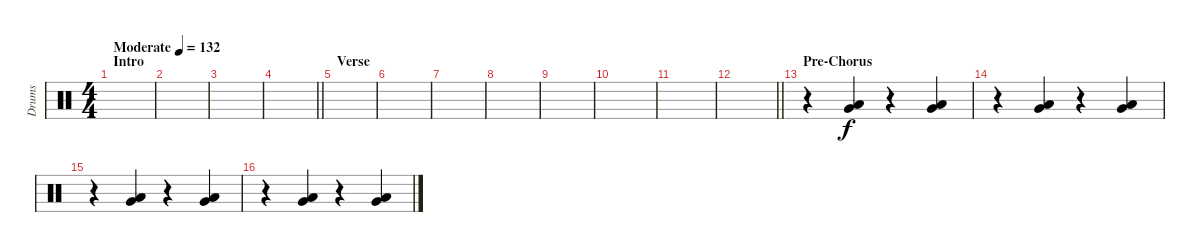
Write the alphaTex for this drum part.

\track ("Drums" "Drums") {instrument percussion}
\staff {score}
\articulation defaults
\ts (4 4)
\section ("" "Intro")
\tempo (132 "Moderate")
\clef neutral
\ks c
|
|
|
\barLineRight lightlight
|
\section ("" "Verse")
|
|
|
|
|
|
|
\barLineRight lightlight
|
\section ("" "Pre-Chorus")
r.4 ("Low Tom (hit)" "Very Low Tom (hit)").4 r.4 ("Low Tom (hit)" "Very Low Tom (hit)").4 |
r.4 ("Low Tom (hit)" "Very Low Tom (hit)").4 r.4 ("Low Tom (hit)" "Very Low Tom (hit)").4 |
r.4 ("Low Tom (hit)" "Very Low Tom (hit)").4 r.4 ("Low Tom (hit)" "Very Low Tom (hit)").4 |
r.4 ("Low Tom (hit)" "Very Low Tom (hit)").4 r.4 ("Low Tom (hit)" "Very Low Tom (hit)").4
